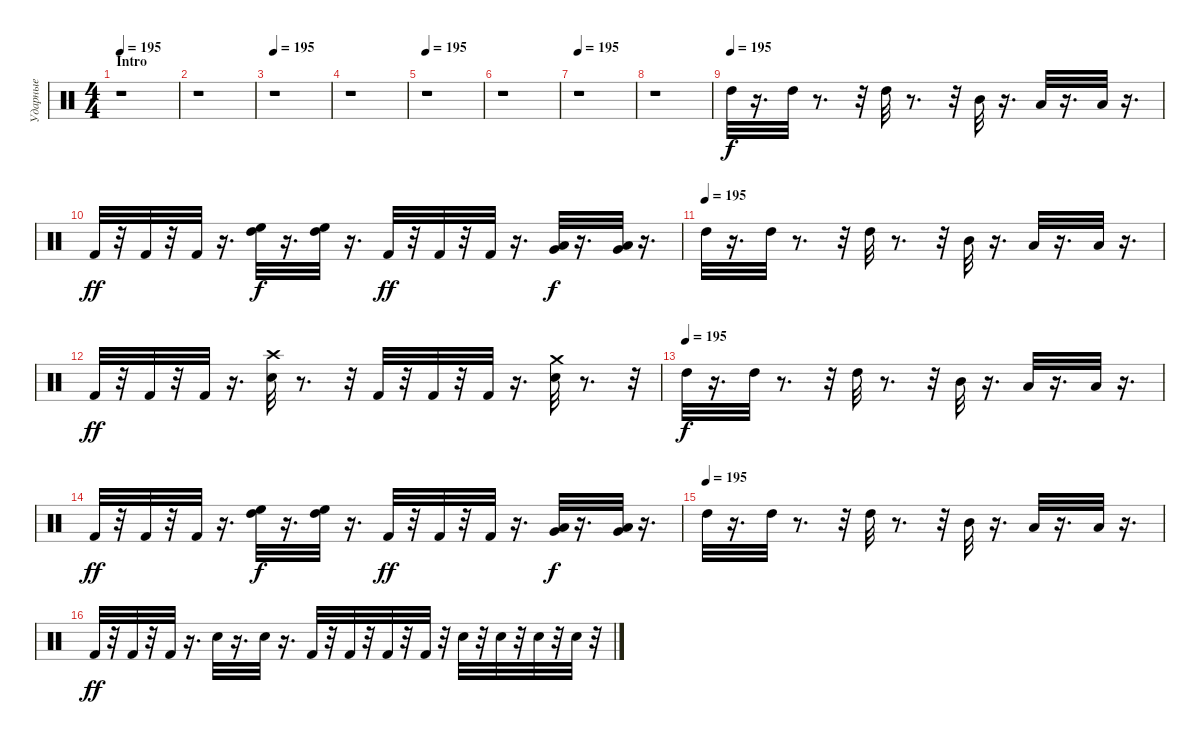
\track ("Ударные" "Ударные") {instrument percussion}
\staff {score}
\articulation defaults
\ts (4 4)
\section ("" "Intro")
\tempo 195
\clef neutral
\ks c
r.1{dy f} |
r.1 |
\tempo 195
r.1 |
r.1 |
\tempo 195
r.1 |
r.1 |
\tempo 195
r.1 |
r.1 |
\tempo (195)
"High Tom (hit)".32 r.16{d} "High Tom (hit)".32 r.8{d} r.32 "High Tom (hit)".32 r.8{d} r.32 "Mid Tom (hit)".32 r.16{d} "Low Tom (hit)".32 r.16{d} "Low Tom (hit)".32 r.16{d} |
"Kick (hit) 2".32{dy ff} r.32 "Kick (hit) 2".32 r.32 "Kick (hit) 2".32 r.16{d} ("High Floor Tom (hit)" "High Tom (hit)").32{dy f} r.16{d} ("High Tom (hit)" "High Floor Tom (hit)").32 r.16{d} "Kick (hit) 2".32{dy ff} r.32 "Kick (hit) 2".32 r.32 "Kick (hit) 2".32 r.16{d} ("Very Low Tom (hit)" "Low Tom (hit)").32{dy f} r.16{d} ("Very Low Tom (hit)" "Low Tom (hit)").32 r.16{d} |
\tempo (195)
"High Tom (hit)".32 r.16{d} "High Tom (hit)".32 r.8{d} r.32 "High Tom (hit)".32 r.8{d} r.32 "Mid Tom (hit)".32 r.16{d} "Low Tom (hit)".32 r.16{d} "Low Tom (hit)".32 r.16{d} |
"Kick (hit) 2".32{dy ff} r.32 "Kick (hit) 2".32 r.32 "Kick (hit) 2".32 r.16{d} ("Crash high (hit)" "Electric Snare (hit)").32 r.8{d} r.32 "Kick (hit) 2".32 r.32 "Kick (hit) 2".32 r.32 "Kick (hit) 2".32 r.16{d} ("Crash medium (hit)" "Electric Snare (hit)").32 r.8{d} r.32 |
\tempo (195)
"High Tom (hit)".32{dy f} r.16{d} "High Tom (hit)".32 r.8{d} r.32 "High Tom (hit)".32 r.8{d} r.32 "Mid Tom (hit)".32 r.16{d} "Low Tom (hit)".32 r.16{d} "Low Tom (hit)".32 r.16{d} |
"Kick (hit) 2".32{dy ff} r.32 "Kick (hit) 2".32 r.32 "Kick (hit) 2".32 r.16{d} ("High Tom (hit)" "High Floor Tom (hit)").32{dy f} r.16{d} ("High Tom (hit)" "High Floor Tom (hit)").32 r.16{d} "Kick (hit) 2".32{dy ff} r.32 "Kick (hit) 2".32 r.32 "Kick (hit) 2".32 r.16{d} ("Low Tom (hit)" "Very Low Tom (hit)").32{dy f} r.16{d} ("Low Tom (hit)" "Very Low Tom (hit)").32 r.16{d} |
\tempo (195)
"High Tom (hit)".32 r.16{d} "High Tom (hit)".32 r.8{d} r.32 "High Tom (hit)".32 r.8{d} r.32 "Mid Tom (hit)".32 r.16{d} "Low Tom (hit)".32 r.16{d} "Low Tom (hit)".32 r.16{d} |
"Kick (hit) 2".32{dy ff} r.32 "Kick (hit) 2".32 r.32 "Kick (hit) 2".32 r.16{d} "Electric Snare (hit)".32 r.16{d} "Electric Snare (hit)".32 r.16{d} "Kick (hit) 2".32 r.32 "Kick (hit) 2".32 r.32 "Kick (hit) 2".32 r.32 "Kick (hit) 2".32 r.32 "Electric Snare (hit)".32 r.32 "Electric Snare (hit)".32 r.32 "Electric Snare (hit)".32 r.32 "Electric Snare (hit)".32 r.32
